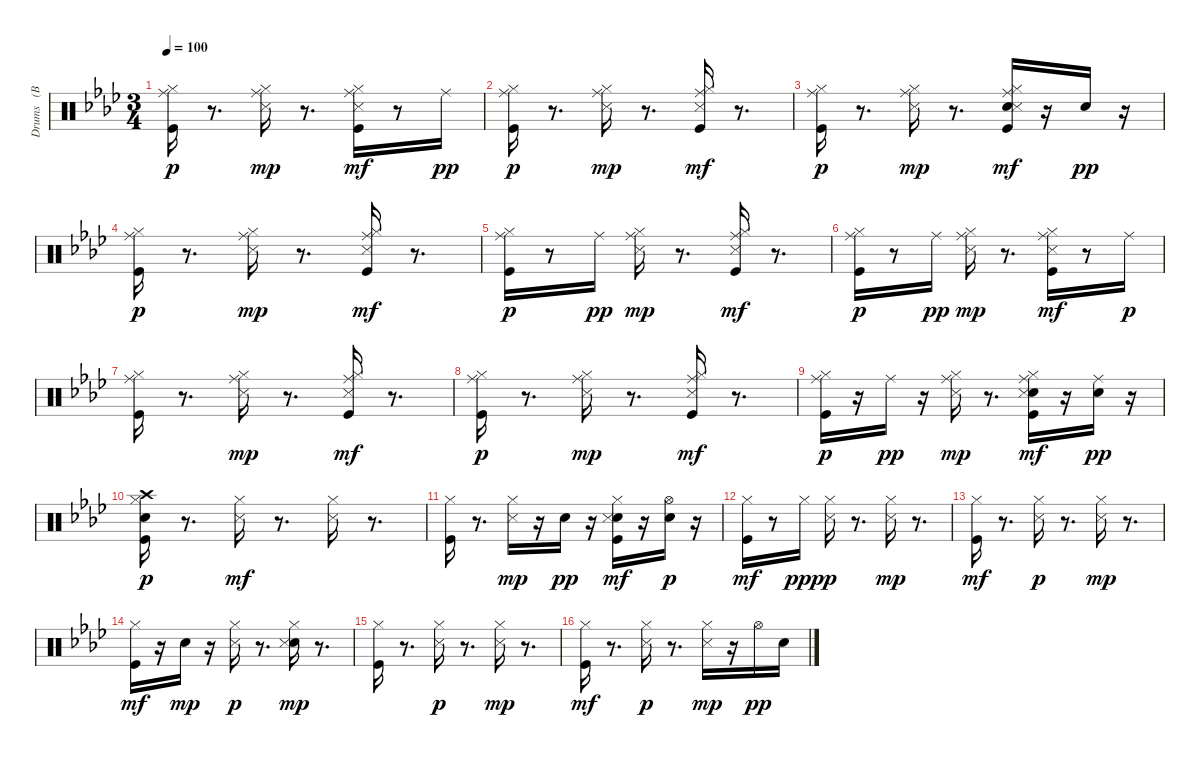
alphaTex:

\track ("Drums   (BB)" "Drums   (B") {instrument percussion}
\staff {score}
\articulation defaults
\ts (3 4)
\tempo 100
\clef neutral
\ks fminor
("Kick (hit)" "Hi-Hat (closed)" "Ride (middle)").16{dy p} r.8{d} ("Hi-Hat (closed)" "Snare (side stick) 3" "Ride (middle)").16{dy mp} r.8{d} ("Kick (hit)" "Hi-Hat (closed)" "Snare (side stick) 3" "Ride (middle)").16{dy mf} r.8 "Ride (middle)".16{dy pp} |
("Kick (hit)" "Hi-Hat (closed)" "Ride (middle)").16{dy p} r.8{d} ("Hi-Hat (closed)" "Snare (side stick) 3" "Ride (middle)").16{dy mp} r.8{d} ("Kick (hit)" "Hi-Hat (closed)" "Snare (side stick) 3" "Ride (middle)").16{dy mf} r.8{d} |
("Kick (hit)" "Hi-Hat (closed)" "Ride (middle)").16{dy p} r.8{d} ("Hi-Hat (closed)" "Snare (side stick) 3" "Ride (middle)").16{dy mp} r.8{d} ("Kick (hit)" "Snare (hit) 2" "Hi-Hat (closed)" "Snare (side stick) 3" "Ride (middle)").16{dy mf} r.16 "Snare (hit) 2".16{dy pp} r.16 |
("Kick (hit)" "Hi-Hat (closed)" "Ride (middle)").16{dy p} r.8{d} ("Hi-Hat (closed)" "Snare (side stick) 3" "Ride (middle)").16{dy mp} r.8{d} ("Kick (hit)" "Hi-Hat (closed)" "Snare (side stick) 3" "Ride (middle)").16{dy mf} r.8{d} |
("Kick (hit)" "Hi-Hat (closed)" "Ride (middle)").16{dy p} r.8 "Ride (middle)".16{dy pp} ("Hi-Hat (closed)" "Snare (side stick) 3" "Ride (middle)").16{dy mp} r.8{d} ("Kick (hit)" "Hi-Hat (closed)" "Snare (side stick) 3" "Ride (middle)").16{dy mf} r.8{d} |
("Kick (hit)" "Hi-Hat (closed)" "Ride (middle)").16{dy p} r.8 "Ride (middle)".16{dy pp} ("Hi-Hat (closed)" "Snare (side stick) 3" "Ride (middle)").16{dy mp} r.8{d} ("Kick (hit)" "Hi-Hat (closed)" "Snare (side stick) 3" "Ride (middle)").16{dy mf} r.8 "Ride (middle)".16{dy p} |
("Kick (hit)" "Hi-Hat (closed)" "Ride (middle)").16 r.8{d} ("Hi-Hat (closed)" "Snare (side stick) 3" "Ride (middle)").16{dy mp} r.8{d} ("Kick (hit)" "Hi-Hat (closed)" "Snare (side stick) 3" "Ride (middle)").16{dy mf} r.8{d} |
("Kick (hit)" "Hi-Hat (closed)" "Ride (middle)").16{dy p} r.8{d} ("Hi-Hat (closed)" "Snare (side stick) 3" "Ride (middle)").16{dy mp} r.8{d} ("Kick (hit)" "Hi-Hat (closed)" "Snare (side stick) 3" "Ride (middle)").16{dy mf} r.8{d} |
("Kick (hit)" "Hi-Hat (closed)" "Ride (middle)").16{dy p} r.16 "Ride (middle)".16{dy pp} r.16 ("Hi-Hat (closed)" "Snare (side stick) 3" "Ride (middle)").16{dy mp} r.8{d} ("Kick (hit)" "Snare (hit) 2" "Hi-Hat (closed)" "Snare (side stick) 3" "Ride (middle)").16{dy mf} r.16 ("Snare (hit) 2" "Ride (middle)").16{dy pp} r.16 |
("Kick (hit)" "Snare (hit) 2" "Hi-Hat (closed)" "Crash high (hit)").16{dy p} r.8{d} ("Hi-Hat (closed)" "Snare (side stick) 3").16{dy mf} r.8{d} ("Hi-Hat (closed)" "Snare (side stick) 3").16 r.8{d} |
("Kick (hit)" "Hi-Hat (closed)").16 r.8{d} ("Hi-Hat (closed)" "Snare (side stick) 3").16{dy mp} r.16 "Snare (hit) 2".16{dy pp} r.16 ("Kick (hit)" "Snare (hit) 2" "Hi-Hat (closed)" "Snare (side stick) 3").16{dy mf} r.16 ("Snare (hit) 2" "Hi-Hat (open)").16{dy p} r.16 |
("Kick (hit)" "Hi-Hat (closed)").16{dy mf} r.8 "Hi-Hat (closed)".16{dy ppp} ("Hi-Hat (closed)" "Snare (side stick) 3").16{dy p} r.8{d} ("Hi-Hat (closed)" "Snare (side stick) 3").16{dy mp} r.8{d} |
("Kick (hit)" "Hi-Hat (closed)").16{dy mf} r.8{d} ("Hi-Hat (closed)" "Snare (side stick) 3").16{dy p} r.8{d} ("Hi-Hat (closed)" "Snare (side stick) 3").16{dy mp} r.8{d} |
("Kick (hit)" "Hi-Hat (closed)").16{dy mf} r.16 "Snare (hit) 2".16{dy mp} r.16 ("Hi-Hat (closed)" "Snare (side stick) 3").16{dy p} r.8{d} ("Snare (hit) 2" "Hi-Hat (closed)" "Snare (side stick) 3").16{dy mp} r.8{d} |
("Kick (hit)" "Hi-Hat (closed)").16 r.8{d} ("Hi-Hat (closed)" "Snare (side stick) 3").16{dy p} r.8{d} ("Hi-Hat (closed)" "Snare (side stick) 3").16{dy mp} r.8{d} |
("Kick (hit)" "Hi-Hat (closed)").16{dy mf} r.8{d} ("Hi-Hat (closed)" "Snare (side stick) 3").16{dy p} r.8{d} ("Hi-Hat (closed)" "Snare (side stick) 3").16{dy mp} r.16 "Hi-Hat (open)".16{dy pp} "Snare (hit) 2".16
